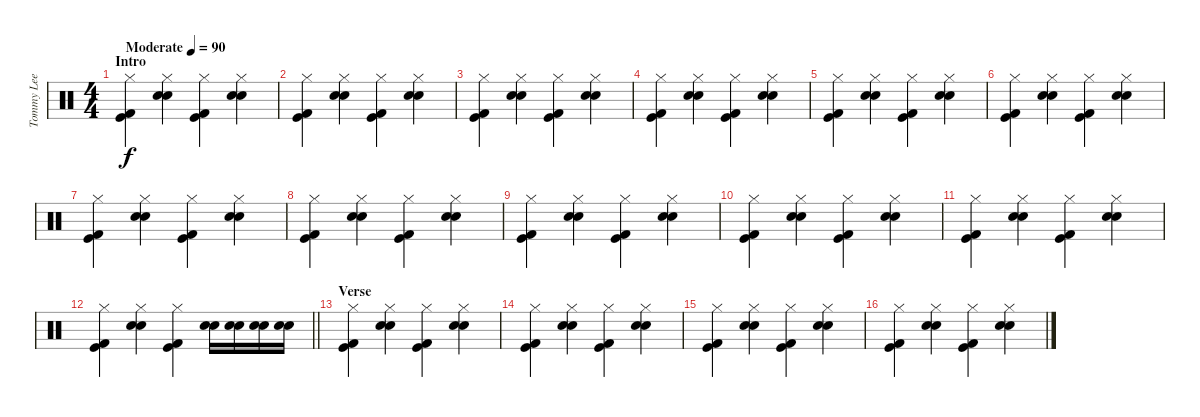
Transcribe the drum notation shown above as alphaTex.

\track ("Tommy Lee" "Tommy Lee") {instrument percussion}
\staff {score}
\articulation defaults
\ts (4 4)
\section ("" "Intro")
\tempo (90 "Moderate")
\clef neutral
\ks c
("Hi-Hat (closed)" "Kick (hit) 2" "Kick (hit)").4{dy f} ("Hi-Hat (closed)" "Electric Snare (hit)" "Snare (hit) 2").4 ("Hi-Hat (closed)" "Kick (hit) 2" "Kick (hit)").4 ("Hi-Hat (closed)" "Electric Snare (hit)" "Snare (hit) 2").4 |
("Hi-Hat (closed)" "Kick (hit) 2" "Kick (hit)").4 ("Hi-Hat (closed)" "Electric Snare (hit)" "Snare (hit) 2").4 ("Hi-Hat (closed)" "Kick (hit) 2" "Kick (hit)").4 ("Hi-Hat (closed)" "Electric Snare (hit)" "Snare (hit) 2").4 |
("Hi-Hat (closed)" "Kick (hit) 2" "Kick (hit)").4 ("Hi-Hat (closed)" "Electric Snare (hit)" "Snare (hit) 2").4 ("Hi-Hat (closed)" "Kick (hit) 2" "Kick (hit)").4 ("Hi-Hat (closed)" "Electric Snare (hit)" "Snare (hit) 2").4 |
("Hi-Hat (closed)" "Kick (hit) 2" "Kick (hit)").4 ("Hi-Hat (closed)" "Electric Snare (hit)" "Snare (hit) 2").4 ("Hi-Hat (closed)" "Kick (hit) 2" "Kick (hit)").4 ("Hi-Hat (closed)" "Electric Snare (hit)" "Snare (hit) 2").4 |
("Hi-Hat (closed)" "Kick (hit) 2" "Kick (hit)").4 ("Hi-Hat (closed)" "Electric Snare (hit)" "Snare (hit) 2").4 ("Hi-Hat (closed)" "Kick (hit) 2" "Kick (hit)").4 ("Hi-Hat (closed)" "Electric Snare (hit)" "Snare (hit) 2").4 |
("Hi-Hat (closed)" "Kick (hit) 2" "Kick (hit)").4 ("Hi-Hat (closed)" "Electric Snare (hit)" "Snare (hit) 2").4 ("Hi-Hat (closed)" "Kick (hit) 2" "Kick (hit)").4 ("Hi-Hat (closed)" "Electric Snare (hit)" "Snare (hit) 2").4 |
("Hi-Hat (closed)" "Kick (hit) 2" "Kick (hit)").4 ("Hi-Hat (closed)" "Electric Snare (hit)" "Snare (hit) 2").4 ("Hi-Hat (closed)" "Kick (hit) 2" "Kick (hit)").4 ("Hi-Hat (closed)" "Electric Snare (hit)" "Snare (hit) 2").4 |
("Hi-Hat (closed)" "Kick (hit) 2" "Kick (hit)").4 ("Hi-Hat (closed)" "Electric Snare (hit)" "Snare (hit) 2").4 ("Hi-Hat (closed)" "Kick (hit) 2" "Kick (hit)").4 ("Hi-Hat (closed)" "Electric Snare (hit)" "Snare (hit) 2").4 |
("Hi-Hat (closed)" "Kick (hit) 2" "Kick (hit)").4 ("Hi-Hat (closed)" "Electric Snare (hit)" "Snare (hit) 2").4 ("Hi-Hat (closed)" "Kick (hit) 2" "Kick (hit)").4 ("Hi-Hat (closed)" "Electric Snare (hit)" "Snare (hit) 2").4 |
("Hi-Hat (closed)" "Kick (hit) 2" "Kick (hit)").4 ("Hi-Hat (closed)" "Electric Snare (hit)" "Snare (hit) 2").4 ("Hi-Hat (closed)" "Kick (hit) 2" "Kick (hit)").4 ("Hi-Hat (closed)" "Electric Snare (hit)" "Snare (hit) 2").4 |
("Hi-Hat (closed)" "Kick (hit) 2" "Kick (hit)").4 ("Hi-Hat (closed)" "Electric Snare (hit)" "Snare (hit) 2").4 ("Hi-Hat (closed)" "Kick (hit) 2" "Kick (hit)").4 ("Hi-Hat (closed)" "Electric Snare (hit)" "Snare (hit) 2").4 |
\barLineRight lightlight
("Hi-Hat (closed)" "Kick (hit) 2" "Kick (hit)").4 ("Hi-Hat (closed)" "Electric Snare (hit)" "Snare (hit) 2").4 ("Hi-Hat (closed)" "Kick (hit) 2" "Kick (hit)").4 ("Electric Snare (hit)" "Snare (hit) 2").16 ("Electric Snare (hit)" "Snare (hit) 2").16 ("Electric Snare (hit)" "Snare (hit) 2").16 ("Electric Snare (hit)" "Snare (hit) 2").16 |
\section ("" "Verse")
("Hi-Hat (closed)" "Kick (hit) 2" "Kick (hit)").4 ("Hi-Hat (closed)" "Electric Snare (hit)" "Snare (hit) 2").4 ("Hi-Hat (closed)" "Kick (hit) 2" "Kick (hit)").4 ("Hi-Hat (closed)" "Electric Snare (hit)" "Snare (hit) 2").4 |
("Hi-Hat (closed)" "Kick (hit) 2" "Kick (hit)").4 ("Hi-Hat (closed)" "Electric Snare (hit)" "Snare (hit) 2").4 ("Hi-Hat (closed)" "Kick (hit) 2" "Kick (hit)").4 ("Hi-Hat (closed)" "Electric Snare (hit)" "Snare (hit) 2").4 |
("Hi-Hat (closed)" "Kick (hit) 2" "Kick (hit)").4 ("Hi-Hat (closed)" "Electric Snare (hit)" "Snare (hit) 2").4 ("Hi-Hat (closed)" "Kick (hit) 2" "Kick (hit)").4 ("Hi-Hat (closed)" "Electric Snare (hit)" "Snare (hit) 2").4 |
("Hi-Hat (closed)" "Kick (hit) 2" "Kick (hit)").4 ("Hi-Hat (closed)" "Electric Snare (hit)" "Snare (hit) 2").4 ("Hi-Hat (closed)" "Kick (hit) 2" "Kick (hit)").4 ("Hi-Hat (closed)" "Electric Snare (hit)" "Snare (hit) 2").4
